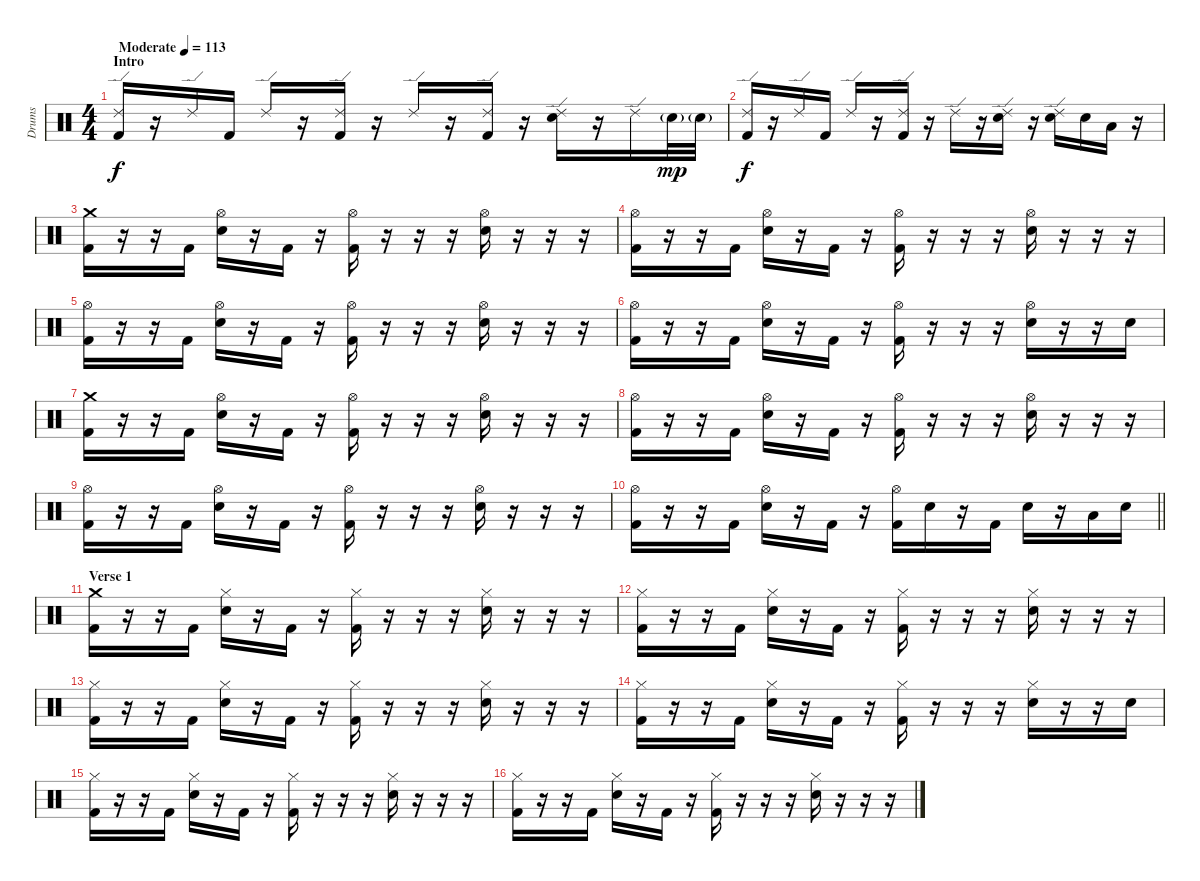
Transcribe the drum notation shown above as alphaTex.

\track ("Drums" "Drums") {instrument percussion}
\staff {score}
\articulation defaults
\ts (4 4)
\section ("" "Intro")
\tempo (113 "Moderate")
\clef neutral
\ks c
("Ride (edge) 2" "Kick (hit) 2").16{dy f} r.16 "Ride (edge) 2".16 "Kick (hit) 2".16 "Ride (edge) 2".16 r.16 ("Ride (edge) 2" "Kick (hit) 2").16 r.16 "Ride (edge) 2".16 r.16 ("Ride (edge) 2" "Kick (hit) 2").16 r.16 ("Ride (edge) 2" "Electric Snare (hit)").16 r.16 "Ride (edge) 2".16 "Electric Snare (hit)"{g}.32{dy mp} "Electric Snare (hit)"{g}.32 |
("Ride (edge) 2" "Kick (hit) 2").16{dy f} r.16 "Ride (edge) 2".16 "Kick (hit) 2".16 "Ride (edge) 2".16 r.16 ("Ride (edge) 2" "Kick (hit) 2").16 r.16 "Ride (edge) 2".16 r.16 ("Ride (edge) 2" "Electric Snare (hit)").16 r.16 ("Ride (edge) 2" "Electric Snare (hit)").16 "Electric Snare (hit)".16 "Low Tom (hit)".16 r.16 |
("Crash medium (hit)" "Kick (hit) 2").16 r.16 r.16 "Kick (hit) 2".16 ("Hi-Hat (open)" "Electric Snare (hit)").16 r.16 "Kick (hit) 2".16 r.16 ("Hi-Hat (open)" "Kick (hit) 2").16 r.16 r.16 r.16 ("Hi-Hat (open)" "Electric Snare (hit)").16 r.16 r.16 r.16 |
("Hi-Hat (open)" "Kick (hit) 2").16 r.16 r.16 "Kick (hit) 2".16 ("Hi-Hat (open)" "Electric Snare (hit)").16 r.16 "Kick (hit) 2".16 r.16 ("Hi-Hat (open)" "Kick (hit) 2").16 r.16 r.16 r.16 ("Hi-Hat (open)" "Electric Snare (hit)").16 r.16 r.16 r.16 |
("Hi-Hat (open)" "Kick (hit) 2").16 r.16 r.16 "Kick (hit) 2".16 ("Hi-Hat (open)" "Electric Snare (hit)").16 r.16 "Kick (hit) 2".16 r.16 ("Hi-Hat (open)" "Kick (hit) 2").16 r.16 r.16 r.16 ("Hi-Hat (open)" "Electric Snare (hit)").16 r.16 r.16 r.16 |
("Hi-Hat (open)" "Kick (hit) 2").16 r.16 r.16 "Kick (hit) 2".16 ("Hi-Hat (open)" "Electric Snare (hit)").16 r.16 "Kick (hit) 2".16 r.16 ("Hi-Hat (open)" "Kick (hit) 2").16 r.16 r.16 r.16 ("Hi-Hat (open)" "Electric Snare (hit)").16 r.16 r.16 "Electric Snare (hit)".16 |
("Crash medium (hit)" "Kick (hit) 2").16 r.16 r.16 "Kick (hit) 2".16 ("Hi-Hat (open)" "Electric Snare (hit)").16 r.16 "Kick (hit) 2".16 r.16 ("Hi-Hat (open)" "Kick (hit) 2").16 r.16 r.16 r.16 ("Hi-Hat (open)" "Electric Snare (hit)").16 r.16 r.16 r.16 |
("Hi-Hat (open)" "Kick (hit) 2").16 r.16 r.16 "Kick (hit) 2".16 ("Hi-Hat (open)" "Electric Snare (hit)").16 r.16 "Kick (hit) 2".16 r.16 ("Hi-Hat (open)" "Kick (hit) 2").16 r.16 r.16 r.16 ("Hi-Hat (open)" "Electric Snare (hit)").16 r.16 r.16 r.16 |
("Hi-Hat (open)" "Kick (hit) 2").16 r.16 r.16 "Kick (hit) 2".16 ("Hi-Hat (open)" "Electric Snare (hit)").16 r.16 "Kick (hit) 2".16 r.16 ("Hi-Hat (open)" "Kick (hit) 2").16 r.16 r.16 r.16 ("Hi-Hat (open)" "Electric Snare (hit)").16 r.16 r.16 r.16 |
\barLineRight lightlight
("Hi-Hat (open)" "Kick (hit) 2").16 r.16 r.16 "Kick (hit) 2".16 ("Hi-Hat (open)" "Electric Snare (hit)").16 r.16 "Kick (hit) 2".16 r.16 ("Hi-Hat (open)" "Kick (hit) 2").16 "Electric Snare (hit)".16 r.16 "Kick (hit) 2".16 "Electric Snare (hit)".16 r.16 "Low Tom (hit)".16 "Electric Snare (hit)".16 |
\section ("" "Verse 1")
("Crash medium (hit)" "Kick (hit) 2").16 r.16 r.16 "Kick (hit) 2".16 ("Hi-Hat (closed)" "Electric Snare (hit)").16 r.16 "Kick (hit) 2".16 r.16 ("Hi-Hat (closed)" "Kick (hit) 2").16 r.16 r.16 r.16 ("Hi-Hat (closed)" "Electric Snare (hit)").16 r.16 r.16 r.16 |
("Hi-Hat (closed)" "Kick (hit) 2").16 r.16 r.16 "Kick (hit) 2".16 ("Hi-Hat (closed)" "Electric Snare (hit)").16 r.16 "Kick (hit) 2".16 r.16 ("Hi-Hat (closed)" "Kick (hit) 2").16 r.16 r.16 r.16 ("Hi-Hat (closed)" "Electric Snare (hit)").16 r.16 r.16 r.16 |
("Hi-Hat (closed)" "Kick (hit) 2").16 r.16 r.16 "Kick (hit) 2".16 ("Hi-Hat (closed)" "Electric Snare (hit)").16 r.16 "Kick (hit) 2".16 r.16 ("Hi-Hat (closed)" "Kick (hit) 2").16 r.16 r.16 r.16 ("Hi-Hat (closed)" "Electric Snare (hit)").16 r.16 r.16 r.16 |
("Hi-Hat (closed)" "Kick (hit) 2").16 r.16 r.16 "Kick (hit) 2".16 ("Hi-Hat (closed)" "Electric Snare (hit)").16 r.16 "Kick (hit) 2".16 r.16 ("Hi-Hat (closed)" "Kick (hit) 2").16 r.16 r.16 r.16 ("Hi-Hat (closed)" "Electric Snare (hit)").16 r.16 r.16 "Electric Snare (hit)".16 |
("Hi-Hat (closed)" "Kick (hit) 2").16 r.16 r.16 "Kick (hit) 2".16 ("Hi-Hat (closed)" "Electric Snare (hit)").16 r.16 "Kick (hit) 2".16 r.16 ("Hi-Hat (closed)" "Kick (hit) 2").16 r.16 r.16 r.16 ("Hi-Hat (closed)" "Electric Snare (hit)").16 r.16 r.16 r.16 |
("Hi-Hat (closed)" "Kick (hit) 2").16 r.16 r.16 "Kick (hit) 2".16 ("Hi-Hat (closed)" "Electric Snare (hit)").16 r.16 "Kick (hit) 2".16 r.16 ("Hi-Hat (closed)" "Kick (hit) 2").16 r.16 r.16 r.16 ("Hi-Hat (closed)" "Electric Snare (hit)").16 r.16 r.16 r.16
